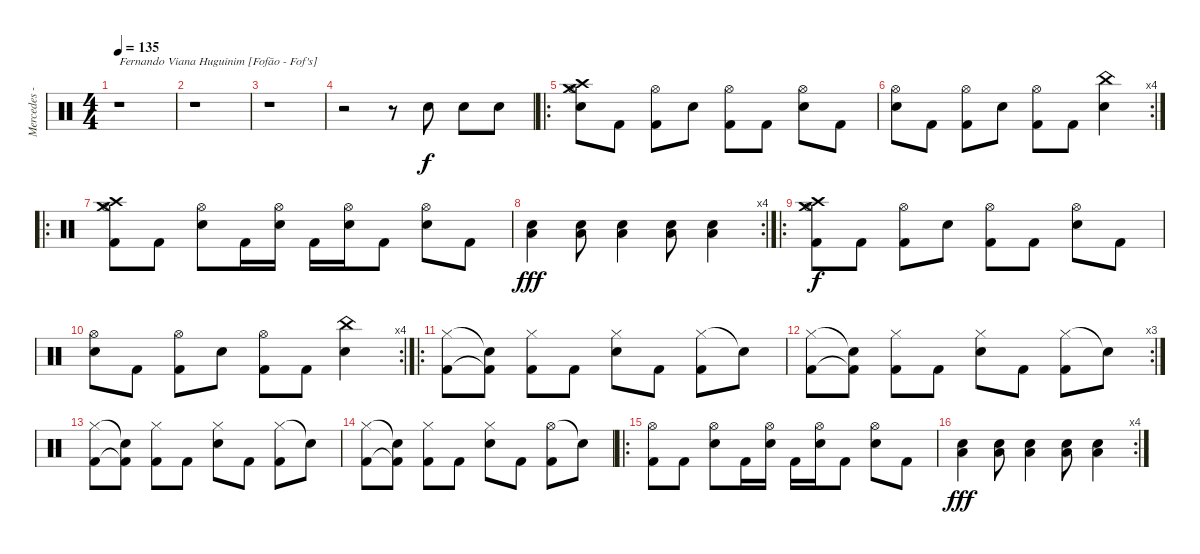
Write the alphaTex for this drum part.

\track ("Mercedes - Bateria" "Mercedes -") {instrument percussion}
\staff {score}
\articulation defaults
\ts (4 4)
\tempo 135
\clef neutral
\ks c
r.1{txt "Fernando Viana Huguinim [Fofão - Fof's]" dy f} |
r.1 |
r.1 |
r.2 r.8 "Electric Snare (hit)".8 "Electric Snare (hit)".8 "Electric Snare (hit)".8 |
\ro
("Crash high (hit)" "Crash medium (hit)" "Hi-Hat (open)" "Electric Snare (hit)").8 "Kick (hit) 2".8 ("Hi-Hat (open)" "Kick (hit) 2").8 "Electric Snare (hit)".8 ("Hi-Hat (open)" "Kick (hit) 2").8 "Kick (hit) 2".8 ("Hi-Hat (open)" "Electric Snare (hit)").8 "Kick (hit) 2".8 |
\rc 4
("Hi-Hat (open)" "Electric Snare (hit)").8 "Kick (hit) 2".8 ("Hi-Hat (open)" "Kick (hit) 2").8 "Electric Snare (hit)".8 ("Hi-Hat (open)" "Kick (hit) 2").8 "Kick (hit) 2".8 ("China (hit)" "Electric Snare (hit)").4 |
\ro
("Crash high (hit)" "Crash medium (hit)" "Hi-Hat (open)" "Kick (hit) 2").8 "Kick (hit) 2".8 ("Hi-Hat (open)" "Electric Snare (hit)").8 "Kick (hit) 2".16 ("Hi-Hat (open)" "Electric Snare (hit)").16 "Kick (hit) 2".16 ("Hi-Hat (open)" "Electric Snare (hit)").16 "Kick (hit) 2".8 ("Hi-Hat (open)" "Electric Snare (hit)").8 "Kick (hit) 2".8 |
\rc 4
("Low Floor Tom (hit)" "Electric Snare (hit)").4{dy fff} ("Low Floor Tom (hit)" "Electric Snare (hit)").8 ("Low Floor Tom (hit)" "Electric Snare (hit)").4 ("Low Floor Tom (hit)" "Electric Snare (hit)").8 ("Low Floor Tom (hit)" "Electric Snare (hit)").4 |
\ro
("Crash high (hit)" "Crash medium (hit)" "Hi-Hat (open)" "Kick (hit) 2").8{dy f} "Kick (hit) 2".8 ("Hi-Hat (open)" "Kick (hit) 2").8 "Electric Snare (hit)".8 ("Hi-Hat (open)" "Kick (hit) 2").8 "Kick (hit) 2".8 ("Hi-Hat (open)" "Electric Snare (hit)").8 "Kick (hit) 2".8 |
\rc 4
("Hi-Hat (open)" "Electric Snare (hit)").8 "Kick (hit) 2".8 ("Hi-Hat (open)" "Kick (hit) 2").8 "Electric Snare (hit)".8 ("Hi-Hat (open)" "Kick (hit) 2").8 "Kick (hit) 2".8 ("China (hit)" "Electric Snare (hit)").4 |
\ro
("Hi-Hat (closed)" "Kick (hit) 2").8 ("Snare (hit)"{t} "Kick (hit) 2"{t}).8 ("Hi-Hat (closed)" "Kick (hit) 2").8 "Kick (hit) 2".8 ("Hi-Hat (closed)" "Electric Snare (hit)").8 "Kick (hit) 2".8 ("Hi-Hat (closed)" "Kick (hit) 2").8 "Snare (hit)"{t}.8 |
\rc 3
("Hi-Hat (closed)" "Kick (hit) 2").8 ("Snare (hit)"{t} "Kick (hit) 2"{t}).8 ("Hi-Hat (closed)" "Kick (hit) 2").8 "Kick (hit) 2".8 ("Hi-Hat (closed)" "Electric Snare (hit)").8 "Kick (hit) 2".8 ("Hi-Hat (closed)" "Kick (hit) 2").8 "Snare (hit)"{t}.8 |
("Hi-Hat (closed)" "Kick (hit) 2").8 ("Snare (hit)"{t} "Kick (hit) 2"{t}).8 ("Hi-Hat (closed)" "Kick (hit) 2").8 "Kick (hit) 2".8 ("Hi-Hat (closed)" "Electric Snare (hit)").8 "Kick (hit) 2".8 ("Hi-Hat (closed)" "Kick (hit) 2").8 "Snare (hit)"{t}.8 |
("Hi-Hat (closed)" "Kick (hit) 2").8 ("Snare (hit)"{t} "Kick (hit) 2"{t}).8 ("Hi-Hat (closed)" "Kick (hit) 2").8 "Kick (hit) 2".8 ("Hi-Hat (closed)" "Electric Snare (hit)").8 "Kick (hit) 2".8 ("Hi-Hat (open)" "Kick (hit) 2").8 "Snare (hit)"{t}.8 |
\ro
("Hi-Hat (open)" "Kick (hit) 2").8 "Kick (hit) 2".8 ("Hi-Hat (open)" "Electric Snare (hit)").8 "Kick (hit) 2".16 ("Hi-Hat (open)" "Electric Snare (hit)").16 "Kick (hit) 2".16 ("Hi-Hat (open)" "Electric Snare (hit)").16 "Kick (hit) 2".8 ("Hi-Hat (open)" "Electric Snare (hit)").8 "Kick (hit) 2".8 |
\rc 4
("Low Floor Tom (hit)" "Electric Snare (hit)").4{dy fff} ("Low Floor Tom (hit)" "Electric Snare (hit)").8 ("Low Floor Tom (hit)" "Electric Snare (hit)").4 ("Low Floor Tom (hit)" "Electric Snare (hit)").8 ("Low Floor Tom (hit)" "Electric Snare (hit)").4
